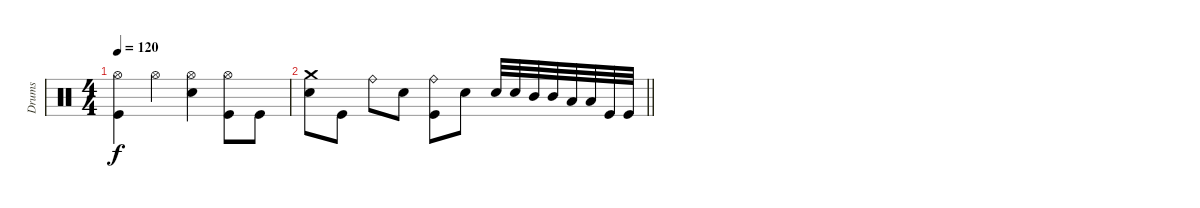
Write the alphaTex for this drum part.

\track ("Drums" "Drums") {instrument percussion}
\staff
\articulation defaults
\ts (4 4)
\tempo 120
\clef neutral
\ks c
("Hi-Hat (open)" "Kick (hit)").4{dy f} "Hi-Hat (open)".4 ("Hi-Hat (open)" "Electric Snare (hit)").4 ("Hi-Hat (open)" "Kick (hit)").8 "Kick (hit)".8 |
\barLineRight lightlight
("Crash medium (hit)" "Electric Snare (hit)").8 "Kick (hit)".8 "Ride (bell)".8 "Electric Snare (hit)".8 ("Ride (bell)" "Kick (hit)").8 "Electric Snare (hit)".8 "Electric Snare (hit)".32 "Electric Snare (hit)".32 "Mid Tom (hit)".32 "Mid Tom (hit)".32 "Low Tom (hit)".32 "Low Tom (hit)".32 "Kick (hit)".32 "Kick (hit)".32
